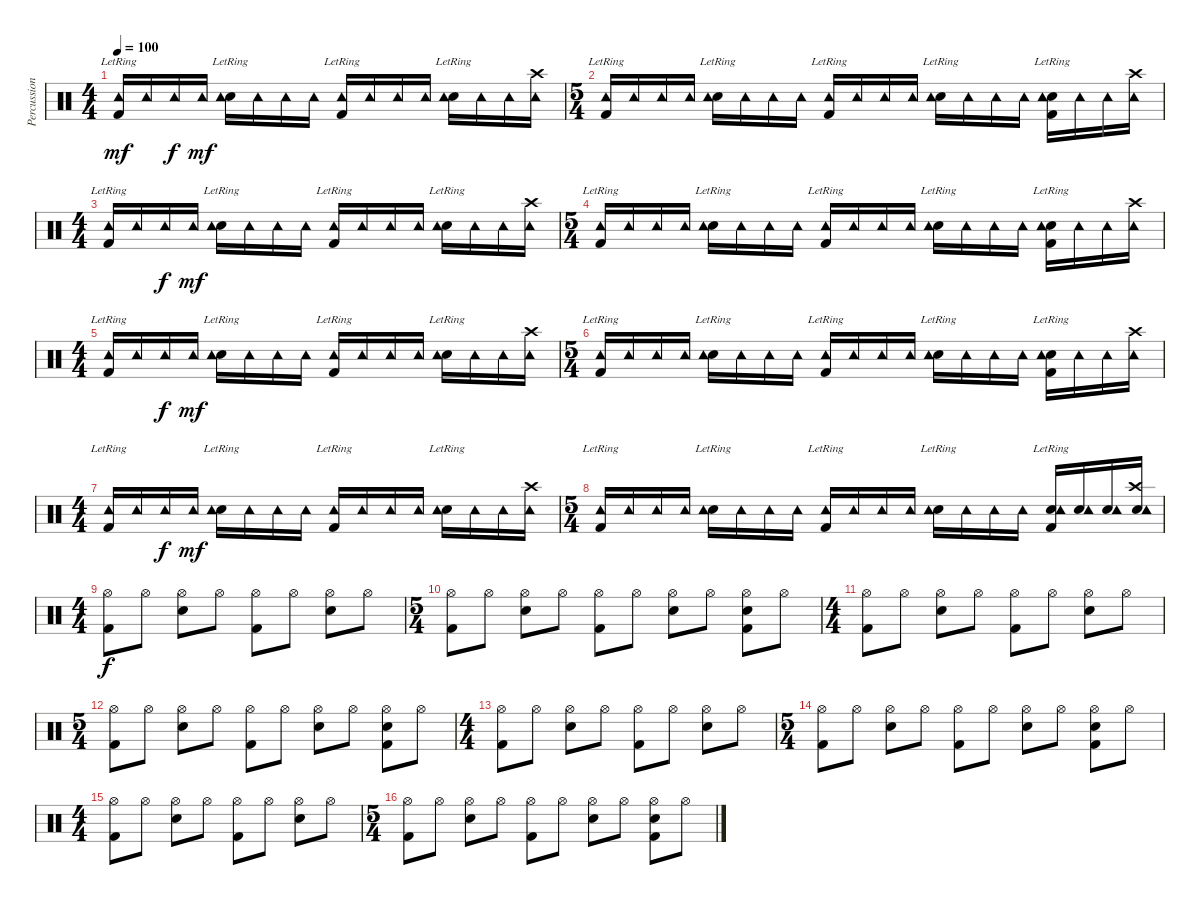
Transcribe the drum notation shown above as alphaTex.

\track ("Percussion" "Percussion") {instrument percussion}
\staff {score}
\articulation defaults
\ts (4 4)
\tempo 100
\clef neutral
\ks c
("Kick (hit) 2"{lr} "Tambourine (hit)").16{dy mf volume 0} "Tambourine (hit)".16{volume 13} "Tambourine (hit)".16{dy f} "Tambourine (hit)".16{dy mf} ("Snare (hit) 2"{lr} "Tambourine (hit)").16 "Tambourine (hit)".16 "Tambourine (hit)".16 "Tambourine (hit)".16 ("Kick (hit) 2"{lr} "Tambourine (hit)").16 "Tambourine (hit)".16 "Tambourine (hit)".16 "Tambourine (hit)".16 ("Snare (hit) 2"{lr} "Tambourine (hit)").16 "Tambourine (hit)".16 "Tambourine (hit)".16 ("Crash high (hit)" "Tambourine (hit)").16 |
\ts (5 4)
("Kick (hit) 2"{lr} "Tambourine (hit)").16 "Tambourine (hit)".16 "Tambourine (hit)".16 "Tambourine (hit)".16 ("Snare (hit) 2"{lr} "Tambourine (hit)").16 "Tambourine (hit)".16 "Tambourine (hit)".16 "Tambourine (hit)".16 ("Kick (hit) 2"{lr} "Tambourine (hit)").16 "Tambourine (hit)".16 "Tambourine (hit)".16 "Tambourine (hit)".16 ("Snare (hit) 2"{lr} "Tambourine (hit)").16 "Tambourine (hit)".16 "Tambourine (hit)".16 "Tambourine (hit)".16 ("Kick (hit) 2"{lr} "Snare (hit) 2"{lr} "Tambourine (hit)").16 "Tambourine (hit)".16 "Tambourine (hit)".16 ("Crash high (hit)" "Tambourine (hit)").16 |
\ts (4 4)
("Kick (hit) 2"{lr} "Tambourine (hit)").16 "Tambourine (hit)".16 "Tambourine (hit)".16{dy f} "Tambourine (hit)".16{dy mf} ("Snare (hit) 2"{lr} "Tambourine (hit)").16 "Tambourine (hit)".16 "Tambourine (hit)".16 "Tambourine (hit)".16 ("Kick (hit) 2"{lr} "Tambourine (hit)").16 "Tambourine (hit)".16 "Tambourine (hit)".16 "Tambourine (hit)".16 ("Snare (hit) 2"{lr} "Tambourine (hit)").16 "Tambourine (hit)".16 "Tambourine (hit)".16 ("Crash high (hit)" "Tambourine (hit)").16 |
\ts (5 4)
("Kick (hit) 2"{lr} "Tambourine (hit)").16 "Tambourine (hit)".16 "Tambourine (hit)".16 "Tambourine (hit)".16 ("Snare (hit) 2"{lr} "Tambourine (hit)").16 "Tambourine (hit)".16 "Tambourine (hit)".16 "Tambourine (hit)".16 ("Kick (hit) 2"{lr} "Tambourine (hit)").16 "Tambourine (hit)".16 "Tambourine (hit)".16 "Tambourine (hit)".16 ("Snare (hit) 2"{lr} "Tambourine (hit)").16 "Tambourine (hit)".16 "Tambourine (hit)".16 "Tambourine (hit)".16 ("Kick (hit) 2"{lr} "Snare (hit) 2"{lr} "Tambourine (hit)").16 "Tambourine (hit)".16 "Tambourine (hit)".16 ("Crash high (hit)" "Tambourine (hit)").16 |
\ts (4 4)
("Kick (hit) 2"{lr} "Tambourine (hit)").16 "Tambourine (hit)".16 "Tambourine (hit)".16{dy f} "Tambourine (hit)".16{dy mf} ("Snare (hit) 2"{lr} "Tambourine (hit)").16 "Tambourine (hit)".16 "Tambourine (hit)".16 "Tambourine (hit)".16 ("Kick (hit) 2"{lr} "Tambourine (hit)").16 "Tambourine (hit)".16 "Tambourine (hit)".16 "Tambourine (hit)".16 ("Snare (hit) 2"{lr} "Tambourine (hit)").16 "Tambourine (hit)".16 "Tambourine (hit)".16 ("Crash high (hit)" "Tambourine (hit)").16 |
\ts (5 4)
("Kick (hit) 2"{lr} "Tambourine (hit)").16 "Tambourine (hit)".16 "Tambourine (hit)".16 "Tambourine (hit)".16 ("Snare (hit) 2"{lr} "Tambourine (hit)").16 "Tambourine (hit)".16 "Tambourine (hit)".16 "Tambourine (hit)".16 ("Kick (hit) 2"{lr} "Tambourine (hit)").16 "Tambourine (hit)".16 "Tambourine (hit)".16 "Tambourine (hit)".16 ("Snare (hit) 2"{lr} "Tambourine (hit)").16 "Tambourine (hit)".16 "Tambourine (hit)".16 "Tambourine (hit)".16 ("Kick (hit) 2"{lr} "Snare (hit) 2"{lr} "Tambourine (hit)").16 "Tambourine (hit)".16 "Tambourine (hit)".16 ("Crash high (hit)" "Tambourine (hit)").16 |
\ts (4 4)
("Kick (hit) 2"{lr} "Tambourine (hit)").16 "Tambourine (hit)".16 "Tambourine (hit)".16{dy f} "Tambourine (hit)".16{dy mf} ("Snare (hit) 2"{lr} "Tambourine (hit)").16 "Tambourine (hit)".16 "Tambourine (hit)".16 "Tambourine (hit)".16 ("Kick (hit) 2"{lr} "Tambourine (hit)").16 "Tambourine (hit)".16 "Tambourine (hit)".16 "Tambourine (hit)".16 ("Snare (hit) 2"{lr} "Tambourine (hit)").16 "Tambourine (hit)".16 "Tambourine (hit)".16 ("Crash high (hit)" "Tambourine (hit)").16 |
\ts (5 4)
("Kick (hit) 2"{lr} "Tambourine (hit)").16 "Tambourine (hit)".16 "Tambourine (hit)".16 "Tambourine (hit)".16 ("Snare (hit) 2"{lr} "Tambourine (hit)").16 "Tambourine (hit)".16 "Tambourine (hit)".16 "Tambourine (hit)".16 ("Kick (hit) 2"{lr} "Tambourine (hit)").16 "Tambourine (hit)".16 "Tambourine (hit)".16 "Tambourine (hit)".16 ("Snare (hit) 2"{lr} "Tambourine (hit)").16 "Tambourine (hit)".16 "Tambourine (hit)".16 "Tambourine (hit)".16 ("Kick (hit) 2"{lr} "Snare (hit) 2"{lr} "Tambourine (hit)").16 ("Electric Snare (hit)" "Tambourine (hit)").16 ("Electric Snare (hit)" "Tambourine (hit)").16 ("Crash high (hit)" "Electric Snare (hit)" "Tambourine (hit)").16 |
\ts (4 4)
("Kick (hit) 2" "Hi-Hat (open)").8{dy f} "Hi-Hat (open)".8 ("Snare (hit) 2" "Hi-Hat (open)").8 "Hi-Hat (open)".8 ("Kick (hit) 2" "Hi-Hat (open)").8 "Hi-Hat (open)".8 ("Snare (hit) 2" "Hi-Hat (open)").8 "Hi-Hat (open)".8 |
\ts (5 4)
("Kick (hit) 2" "Hi-Hat (open)").8 "Hi-Hat (open)".8 ("Snare (hit) 2" "Hi-Hat (open)").8 "Hi-Hat (open)".8 ("Kick (hit) 2" "Hi-Hat (open)").8 "Hi-Hat (open)".8 ("Snare (hit) 2" "Hi-Hat (open)").8 "Hi-Hat (open)".8 ("Kick (hit) 2" "Snare (hit) 2" "Hi-Hat (open)").8 "Hi-Hat (open)".8 |
\ts (4 4)
("Kick (hit) 2" "Hi-Hat (open)").8 "Hi-Hat (open)".8 ("Snare (hit) 2" "Hi-Hat (open)").8 "Hi-Hat (open)".8 ("Kick (hit) 2" "Hi-Hat (open)").8 "Hi-Hat (open)".8 ("Snare (hit) 2" "Hi-Hat (open)").8 "Hi-Hat (open)".8 |
\ts (5 4)
("Kick (hit) 2" "Hi-Hat (open)").8 "Hi-Hat (open)".8 ("Snare (hit) 2" "Hi-Hat (open)").8 "Hi-Hat (open)".8 ("Kick (hit) 2" "Hi-Hat (open)").8 "Hi-Hat (open)".8 ("Snare (hit) 2" "Hi-Hat (open)").8 "Hi-Hat (open)".8 ("Kick (hit) 2" "Snare (hit) 2" "Hi-Hat (open)").8 "Hi-Hat (open)".8 |
\ts (4 4)
("Kick (hit) 2" "Hi-Hat (open)").8 "Hi-Hat (open)".8 ("Snare (hit) 2" "Hi-Hat (open)").8 "Hi-Hat (open)".8 ("Kick (hit) 2" "Hi-Hat (open)").8 "Hi-Hat (open)".8 ("Snare (hit) 2" "Hi-Hat (open)").8 "Hi-Hat (open)".8 |
\ts (5 4)
("Kick (hit) 2" "Hi-Hat (open)").8 "Hi-Hat (open)".8 ("Snare (hit) 2" "Hi-Hat (open)").8 "Hi-Hat (open)".8 ("Kick (hit) 2" "Hi-Hat (open)").8 "Hi-Hat (open)".8 ("Snare (hit) 2" "Hi-Hat (open)").8 "Hi-Hat (open)".8 ("Kick (hit) 2" "Snare (hit) 2" "Hi-Hat (open)").8 "Hi-Hat (open)".8 |
\ts (4 4)
("Kick (hit) 2" "Hi-Hat (open)").8 "Hi-Hat (open)".8 ("Snare (hit) 2" "Hi-Hat (open)").8 "Hi-Hat (open)".8 ("Kick (hit) 2" "Hi-Hat (open)").8 "Hi-Hat (open)".8 ("Snare (hit) 2" "Hi-Hat (open)").8 "Hi-Hat (open)".8 |
\ts (5 4)
("Kick (hit) 2" "Hi-Hat (open)").8 "Hi-Hat (open)".8 ("Snare (hit) 2" "Hi-Hat (open)").8 "Hi-Hat (open)".8 ("Kick (hit) 2" "Hi-Hat (open)").8 "Hi-Hat (open)".8 ("Snare (hit) 2" "Hi-Hat (open)").8 "Hi-Hat (open)".8 ("Kick (hit) 2" "Snare (hit) 2" "Hi-Hat (open)").8 "Hi-Hat (open)".8
